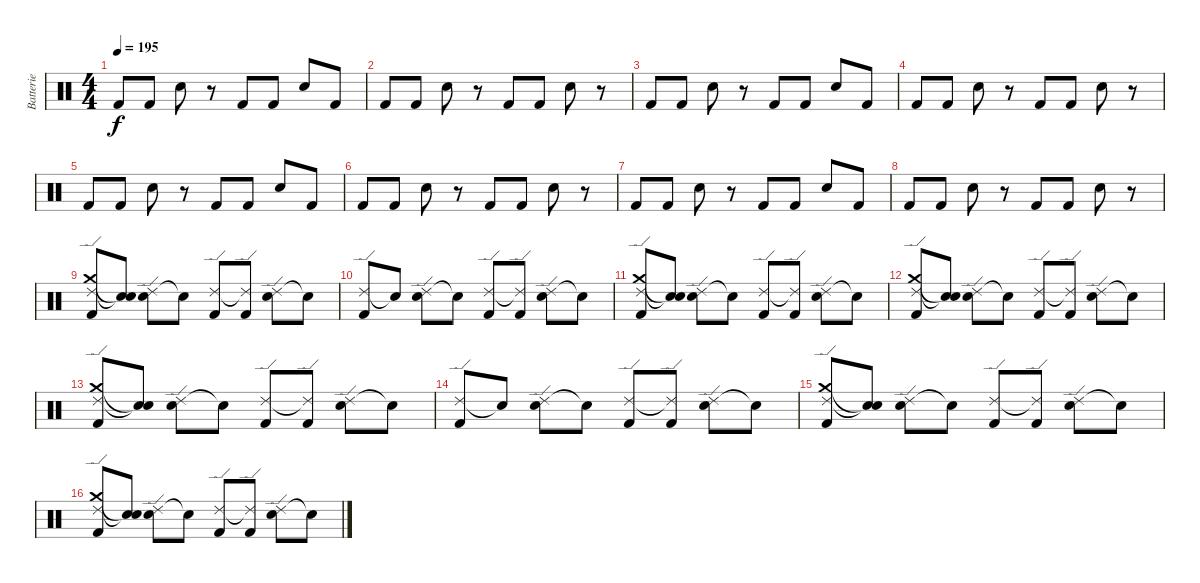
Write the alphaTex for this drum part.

\track ("Batterie" "Batterie") {instrument percussion}
\staff {score}
\articulation defaults
\ts (4 4)
\tempo 195
\clef neutral
\ks c "Kick (hit) 2".8{dy f} "Kick (hit) 2".8 "Electric Snare (hit)".8
r.8 "Kick (hit) 2".8 "Kick (hit) 2".8 "Electric Snare (hit)".8 "Kick (hit) 2".8 |
"Kick (hit) 2".8 "Kick (hit) 2".8 "Electric Snare (hit)".8 r.8 "Kick (hit) 2".8 "Kick (hit) 2".8 "Electric Snare (hit)".8 r.8 |
"Kick (hit) 2".8 "Kick (hit) 2".8 "Electric Snare (hit)".8 r.8 "Kick (hit) 2".8 "Kick (hit) 2".8 "Electric Snare (hit)".8 "Kick (hit) 2".8 |
"Kick (hit) 2".8 "Kick (hit) 2".8 "Electric Snare (hit)".8 r.8 "Kick (hit) 2".8 "Kick (hit) 2".8 "Electric Snare (hit)".8 r.8 |
"Kick (hit) 2".8 "Kick (hit) 2".8 "Electric Snare (hit)".8 r.8 "Kick (hit) 2".8 "Kick (hit) 2".8 "Electric Snare (hit)".8 "Kick (hit) 2".8 |
"Kick (hit) 2".8 "Kick (hit) 2".8 "Electric Snare (hit)".8 r.8 "Kick (hit) 2".8 "Kick (hit) 2".8 "Electric Snare (hit)".8 r.8 |
"Kick (hit) 2".8 "Kick (hit) 2".8 "Electric Snare (hit)".8 r.8 "Kick (hit) 2".8 "Kick (hit) 2".8 "Electric Snare (hit)".8 "Kick (hit) 2".8 |
"Kick (hit) 2".8 "Kick (hit) 2".8 "Electric Snare (hit)".8 r.8 "Kick (hit) 2".8 "Kick (hit) 2".8 "Electric Snare (hit)".8 r.8 |
("Crash medium (hit)" "Ride (edge) 2" "Kick (hit) 2").8 ("Snare (hit)"{t} "Snare (hit)"{t}).8 ("Ride (edge) 2" "Electric Snare (hit)").8 "Snare (hit)"{t}.8 ("Ride (edge) 2" "Kick (hit) 2").8 ("Ride (edge) 2"{t} "Kick (hit) 2").8 ("Ride (edge) 2" "Electric Snare (hit)").8 "Snare (hit)"{t}.8 |
("Ride (edge) 2" "Kick (hit) 2").8 "Snare (hit)"{t}.8 ("Ride (edge) 2" "Electric Snare (hit)").8 "Snare (hit)"{t}.8 ("Ride (edge) 2" "Kick (hit) 2").8 ("Ride (edge) 2"{t} "Kick (hit) 2").8 ("Ride (edge) 2" "Electric Snare (hit)").8 "Snare (hit)"{t}.8 |
("Crash medium (hit)" "Ride (edge) 2" "Kick (hit) 2").8 ("Snare (hit)"{t} "Snare (hit)"{t}).8 ("Ride (edge) 2" "Electric Snare (hit)").8 "Snare (hit)"{t}.8 ("Ride (edge) 2" "Kick (hit) 2").8 ("Ride (edge) 2"{t} "Kick (hit) 2").8 ("Ride (edge) 2" "Electric Snare (hit)").8 "Snare (hit)"{t}.8 |
("Crash medium (hit)" "Ride (edge) 2" "Kick (hit) 2").8 ("Snare (hit)"{t} "Snare (hit)"{t}).8 ("Ride (edge) 2" "Electric Snare (hit)").8 "Snare (hit)"{t}.8 ("Ride (edge) 2" "Kick (hit) 2").8 ("Ride (edge) 2"{t} "Kick (hit) 2").8 ("Ride (edge) 2" "Electric Snare (hit)").8 "Snare (hit)"{t}.8 |
("Crash medium (hit)" "Ride (edge) 2" "Kick (hit) 2").8 ("Snare (hit)"{t} "Snare (hit)"{t}).8 ("Ride (edge) 2" "Electric Snare (hit)").8 "Snare (hit)"{t}.8 ("Ride (edge) 2" "Kick (hit) 2").8 ("Ride (edge) 2"{t} "Kick (hit) 2").8 ("Ride (edge) 2" "Electric Snare (hit)").8 "Snare (hit)"{t}.8 |
("Ride (edge) 2" "Kick (hit) 2").8 "Snare (hit)"{t}.8 ("Ride (edge) 2" "Electric Snare (hit)").8 "Snare (hit)"{t}.8 ("Ride (edge) 2" "Kick (hit) 2").8 ("Ride (edge) 2"{t} "Kick (hit) 2").8 ("Ride (edge) 2" "Electric Snare (hit)").8 "Snare (hit)"{t}.8 |
("Crash medium (hit)" "Ride (edge) 2" "Kick (hit) 2").8 ("Snare (hit)"{t} "Snare (hit)"{t}).8 ("Ride (edge) 2" "Electric Snare (hit)").8 "Snare (hit)"{t}.8 ("Ride (edge) 2" "Kick (hit) 2").8 ("Ride (edge) 2"{t} "Kick (hit) 2").8 ("Ride (edge) 2" "Electric Snare (hit)").8 "Snare (hit)"{t}.8 |
("Crash medium (hit)" "Ride (edge) 2" "Kick (hit) 2").8 ("Snare (hit)"{t} "Snare (hit)"{t}).8 ("Ride (edge) 2" "Electric Snare (hit)").8 "Snare (hit)"{t}.8 ("Ride (edge) 2" "Kick (hit) 2").8 ("Ride (edge) 2"{t} "Kick (hit) 2").8 ("Ride (edge) 2" "Electric Snare (hit)").8 "Snare (hit)"{t}.8
